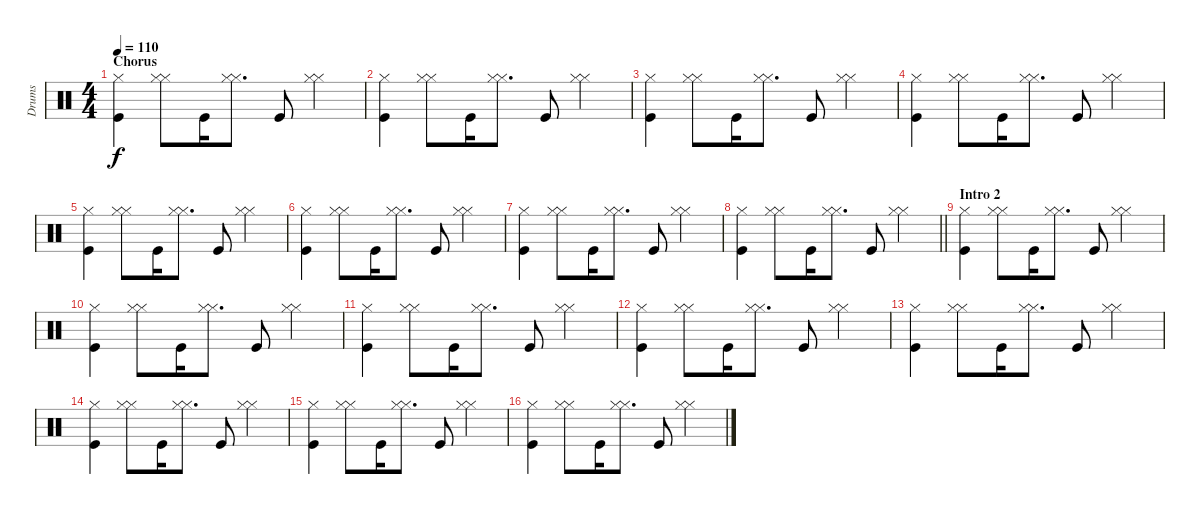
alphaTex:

\track ("Drums" "Drums") {instrument percussion}
\staff {score}
\articulation defaults
\ts (4 4)
\section ("" "Chorus")
\tempo 110
\clef neutral
\ks c
("Hi-Hat (closed)" "Kick (hit)").4{dy f} ("Hi-Hat (closed)" "Hi-Hat (closed)").8 "Kick (hit)".16 ("Hi-Hat (closed)" "Hi-Hat (closed)").8{d} "Kick (hit)".8 ("Hi-Hat (closed)" "Hi-Hat (closed)").4 |
("Hi-Hat (closed)" "Kick (hit)").4 ("Hi-Hat (closed)" "Hi-Hat (closed)").8 "Kick (hit)".16 ("Hi-Hat (closed)" "Hi-Hat (closed)").8{d} "Kick (hit)".8 ("Hi-Hat (closed)" "Hi-Hat (closed)").4 |
("Hi-Hat (closed)" "Kick (hit)").4 ("Hi-Hat (closed)" "Hi-Hat (closed)").8 "Kick (hit)".16 ("Hi-Hat (closed)" "Hi-Hat (closed)").8{d} "Kick (hit)".8 ("Hi-Hat (closed)" "Hi-Hat (closed)").4 |
("Hi-Hat (closed)" "Kick (hit)").4 ("Hi-Hat (closed)" "Hi-Hat (closed)").8 "Kick (hit)".16 ("Hi-Hat (closed)" "Hi-Hat (closed)").8{d} "Kick (hit)".8 ("Hi-Hat (closed)" "Hi-Hat (closed)").4 |
("Hi-Hat (closed)" "Kick (hit)").4 ("Hi-Hat (closed)" "Hi-Hat (closed)").8 "Kick (hit)".16 ("Hi-Hat (closed)" "Hi-Hat (closed)").8{d} "Kick (hit)".8 ("Hi-Hat (closed)" "Hi-Hat (closed)").4 |
("Hi-Hat (closed)" "Kick (hit)").4 ("Hi-Hat (closed)" "Hi-Hat (closed)").8 "Kick (hit)".16 ("Hi-Hat (closed)" "Hi-Hat (closed)").8{d} "Kick (hit)".8 ("Hi-Hat (closed)" "Hi-Hat (closed)").4 |
("Hi-Hat (closed)" "Kick (hit)").4 ("Hi-Hat (closed)" "Hi-Hat (closed)").8 "Kick (hit)".16 ("Hi-Hat (closed)" "Hi-Hat (closed)").8{d} "Kick (hit)".8 ("Hi-Hat (closed)" "Hi-Hat (closed)").4 |
\barLineRight lightlight
("Hi-Hat (closed)" "Kick (hit)").4 ("Hi-Hat (closed)" "Hi-Hat (closed)").8 "Kick (hit)".16 ("Hi-Hat (closed)" "Hi-Hat (closed)").8{d} "Kick (hit)".8 ("Hi-Hat (closed)" "Hi-Hat (closed)").4 |
\section ("" "Intro 2")
("Hi-Hat (closed)" "Kick (hit)").4 ("Hi-Hat (closed)" "Hi-Hat (closed)").8 "Kick (hit)".16 ("Hi-Hat (closed)" "Hi-Hat (closed)").8{d} "Kick (hit)".8 ("Hi-Hat (closed)" "Hi-Hat (closed)").4 |
("Hi-Hat (closed)" "Kick (hit)").4 ("Hi-Hat (closed)" "Hi-Hat (closed)").8 "Kick (hit)".16 ("Hi-Hat (closed)" "Hi-Hat (closed)").8{d} "Kick (hit)".8 ("Hi-Hat (closed)" "Hi-Hat (closed)").4 |
("Hi-Hat (closed)" "Kick (hit)").4 ("Hi-Hat (closed)" "Hi-Hat (closed)").8 "Kick (hit)".16 ("Hi-Hat (closed)" "Hi-Hat (closed)").8{d} "Kick (hit)".8 ("Hi-Hat (closed)" "Hi-Hat (closed)").4 |
("Hi-Hat (closed)" "Kick (hit)").4 ("Hi-Hat (closed)" "Hi-Hat (closed)").8 "Kick (hit)".16 ("Hi-Hat (closed)" "Hi-Hat (closed)").8{d} "Kick (hit)".8 ("Hi-Hat (closed)" "Hi-Hat (closed)").4 |
("Hi-Hat (closed)" "Kick (hit)").4 ("Hi-Hat (closed)" "Hi-Hat (closed)").8 "Kick (hit)".16 ("Hi-Hat (closed)" "Hi-Hat (closed)").8{d} "Kick (hit)".8 ("Hi-Hat (closed)" "Hi-Hat (closed)").4 |
("Hi-Hat (closed)" "Kick (hit)").4 ("Hi-Hat (closed)" "Hi-Hat (closed)").8 "Kick (hit)".16 ("Hi-Hat (closed)" "Hi-Hat (closed)").8{d} "Kick (hit)".8 ("Hi-Hat (closed)" "Hi-Hat (closed)").4 |
("Hi-Hat (closed)" "Kick (hit)").4 ("Hi-Hat (closed)" "Hi-Hat (closed)").8 "Kick (hit)".16 ("Hi-Hat (closed)" "Hi-Hat (closed)").8{d} "Kick (hit)".8 ("Hi-Hat (closed)" "Hi-Hat (closed)").4 |
("Hi-Hat (closed)" "Kick (hit)").4 ("Hi-Hat (closed)" "Hi-Hat (closed)").8 "Kick (hit)".16 ("Hi-Hat (closed)" "Hi-Hat (closed)").8{d} "Kick (hit)".8 ("Hi-Hat (closed)" "Hi-Hat (closed)").4
